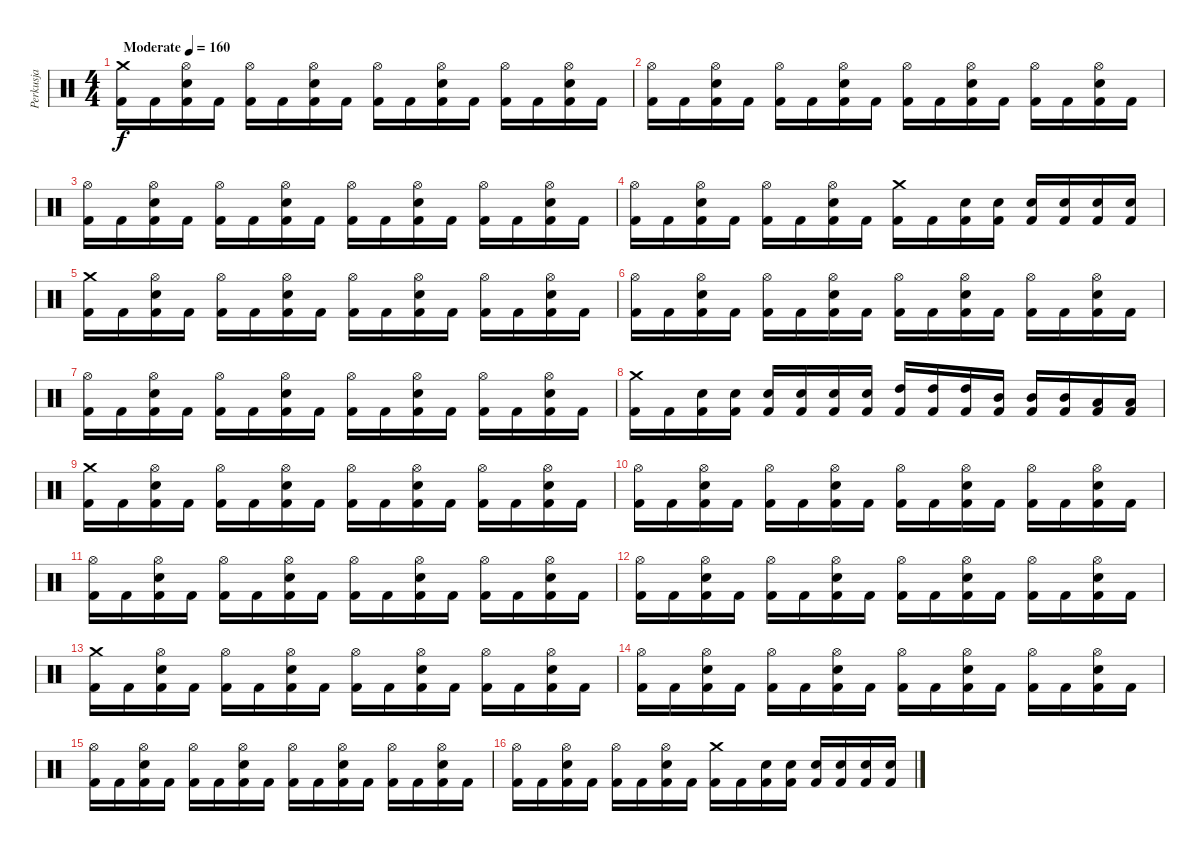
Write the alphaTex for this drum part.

\track ("Perkusja" "Perkusja") {instrument percussion}
\staff {score}
\articulation defaults
\ts (4 4)
\tempo (160 "Moderate")
\clef neutral
\ks c
("Crash medium (hit)" "Kick (hit) 2").16{dy f} "Kick (hit) 2".16 ("Hi-Hat (open)" "Snare (hit) 2" "Kick (hit) 2").16 "Kick (hit) 2".16 ("Hi-Hat (open)" "Kick (hit) 2").16 "Kick (hit) 2".16 ("Hi-Hat (open)" "Snare (hit) 2" "Kick (hit) 2").16 "Kick (hit) 2".16 ("Hi-Hat (open)" "Kick (hit) 2").16 "Kick (hit) 2".16 ("Hi-Hat (open)" "Snare (hit) 2" "Kick (hit) 2").16 "Kick (hit) 2".16 ("Hi-Hat (open)" "Kick (hit) 2").16 "Kick (hit) 2".16 ("Hi-Hat (open)" "Snare (hit) 2" "Kick (hit) 2").16 "Kick (hit) 2".16 |
("Hi-Hat (open)" "Kick (hit) 2").16 "Kick (hit) 2".16 ("Hi-Hat (open)" "Snare (hit) 2" "Kick (hit) 2").16 "Kick (hit) 2".16 ("Hi-Hat (open)" "Kick (hit) 2").16 "Kick (hit) 2".16 ("Hi-Hat (open)" "Snare (hit) 2" "Kick (hit) 2").16 "Kick (hit) 2".16 ("Hi-Hat (open)" "Kick (hit) 2").16 "Kick (hit) 2".16 ("Hi-Hat (open)" "Snare (hit) 2" "Kick (hit) 2").16 "Kick (hit) 2".16 ("Hi-Hat (open)" "Kick (hit) 2").16 "Kick (hit) 2".16 ("Hi-Hat (open)" "Snare (hit) 2" "Kick (hit) 2").16 "Kick (hit) 2".16 |
("Hi-Hat (open)" "Kick (hit) 2").16 "Kick (hit) 2".16 ("Hi-Hat (open)" "Snare (hit) 2" "Kick (hit) 2").16 "Kick (hit) 2".16 ("Hi-Hat (open)" "Kick (hit) 2").16 "Kick (hit) 2".16 ("Hi-Hat (open)" "Snare (hit) 2" "Kick (hit) 2").16 "Kick (hit) 2".16 ("Hi-Hat (open)" "Kick (hit) 2").16 "Kick (hit) 2".16 ("Hi-Hat (open)" "Snare (hit) 2" "Kick (hit) 2").16 "Kick (hit) 2".16 ("Hi-Hat (open)" "Kick (hit) 2").16 "Kick (hit) 2".16 ("Hi-Hat (open)" "Snare (hit) 2" "Kick (hit) 2").16 "Kick (hit) 2".16 |
("Hi-Hat (open)" "Kick (hit) 2").16 "Kick (hit) 2".16 ("Hi-Hat (open)" "Snare (hit) 2" "Kick (hit) 2").16 "Kick (hit) 2".16 ("Hi-Hat (open)" "Kick (hit) 2").16 "Kick (hit) 2".16 ("Hi-Hat (open)" "Snare (hit) 2" "Kick (hit) 2").16 "Kick (hit) 2".16 ("Crash medium (hit)" "Kick (hit) 2").16 "Kick (hit) 2".16 ("Snare (hit) 2" "Kick (hit) 2").16 ("Snare (hit) 2" "Kick (hit) 2").16 ("Snare (hit) 2" "Kick (hit) 2").16 ("Snare (hit) 2" "Kick (hit) 2").16 ("Snare (hit) 2" "Kick (hit) 2").16 ("Snare (hit) 2" "Kick (hit) 2").16 |
("Crash medium (hit)" "Kick (hit) 2").16 "Kick (hit) 2".16 ("Hi-Hat (open)" "Snare (hit) 2" "Kick (hit) 2").16 "Kick (hit) 2".16 ("Hi-Hat (open)" "Kick (hit) 2").16 "Kick (hit) 2".16 ("Hi-Hat (open)" "Snare (hit) 2" "Kick (hit) 2").16 "Kick (hit) 2".16 ("Hi-Hat (open)" "Kick (hit) 2").16 "Kick (hit) 2".16 ("Hi-Hat (open)" "Snare (hit) 2" "Kick (hit) 2").16 "Kick (hit) 2".16 ("Hi-Hat (open)" "Kick (hit) 2").16 "Kick (hit) 2".16 ("Hi-Hat (open)" "Snare (hit) 2" "Kick (hit) 2").16 "Kick (hit) 2".16 |
("Hi-Hat (open)" "Kick (hit) 2").16 "Kick (hit) 2".16 ("Hi-Hat (open)" "Snare (hit) 2" "Kick (hit) 2").16 "Kick (hit) 2".16 ("Hi-Hat (open)" "Kick (hit) 2").16 "Kick (hit) 2".16 ("Hi-Hat (open)" "Snare (hit) 2" "Kick (hit) 2").16 "Kick (hit) 2".16 ("Hi-Hat (open)" "Kick (hit) 2").16 "Kick (hit) 2".16 ("Hi-Hat (open)" "Snare (hit) 2" "Kick (hit) 2").16 "Kick (hit) 2".16 ("Hi-Hat (open)" "Kick (hit) 2").16 "Kick (hit) 2".16 ("Hi-Hat (open)" "Snare (hit) 2" "Kick (hit) 2").16 "Kick (hit) 2".16 |
("Hi-Hat (open)" "Kick (hit) 2").16 "Kick (hit) 2".16 ("Hi-Hat (open)" "Snare (hit) 2" "Kick (hit) 2").16 "Kick (hit) 2".16 ("Hi-Hat (open)" "Kick (hit) 2").16 "Kick (hit) 2".16 ("Hi-Hat (open)" "Snare (hit) 2" "Kick (hit) 2").16 "Kick (hit) 2".16 ("Hi-Hat (open)" "Kick (hit) 2").16 "Kick (hit) 2".16 ("Hi-Hat (open)" "Snare (hit) 2" "Kick (hit) 2").16 "Kick (hit) 2".16 ("Hi-Hat (open)" "Kick (hit) 2").16 "Kick (hit) 2".16 ("Hi-Hat (open)" "Snare (hit) 2" "Kick (hit) 2").16 "Kick (hit) 2".16 |
("Crash medium (hit)" "Kick (hit) 2").16 "Kick (hit) 2".16 ("Snare (hit) 2" "Kick (hit) 2").16 ("Snare (hit) 2" "Kick (hit) 2").16 ("Snare (hit) 2" "Kick (hit) 2").16 ("Snare (hit) 2" "Kick (hit) 2").16 ("Snare (hit) 2" "Kick (hit) 2").16 ("Snare (hit) 2" "Kick (hit) 2").16 ("High Tom (hit)" "Kick (hit) 2").16 ("High Tom (hit)" "Kick (hit) 2").16 ("High Tom (hit)" "Kick (hit) 2").16 ("Mid Tom (hit)" "Kick (hit) 2").16 ("Mid Tom (hit)" "Kick (hit) 2").16 ("Mid Tom (hit)" "Kick (hit) 2").16 ("Low Tom (hit)" "Kick (hit) 2").16 ("Low Tom (hit)" "Kick (hit) 2").16 |
("Crash medium (hit)" "Kick (hit) 2").16 "Kick (hit) 2".16 ("Hi-Hat (open)" "Snare (hit) 2" "Kick (hit) 2").16 "Kick (hit) 2".16 ("Hi-Hat (open)" "Kick (hit) 2").16 "Kick (hit) 2".16 ("Hi-Hat (open)" "Snare (hit) 2" "Kick (hit) 2").16 "Kick (hit) 2".16 ("Hi-Hat (open)" "Kick (hit) 2").16 "Kick (hit) 2".16 ("Hi-Hat (open)" "Snare (hit) 2" "Kick (hit) 2").16 "Kick (hit) 2".16 ("Hi-Hat (open)" "Kick (hit) 2").16 "Kick (hit) 2".16 ("Hi-Hat (open)" "Snare (hit) 2" "Kick (hit) 2").16 "Kick (hit) 2".16 |
("Hi-Hat (open)" "Kick (hit) 2").16 "Kick (hit) 2".16 ("Hi-Hat (open)" "Snare (hit) 2" "Kick (hit) 2").16 "Kick (hit) 2".16 ("Hi-Hat (open)" "Kick (hit) 2").16 "Kick (hit) 2".16 ("Hi-Hat (open)" "Snare (hit) 2" "Kick (hit) 2").16 "Kick (hit) 2".16 ("Hi-Hat (open)" "Kick (hit) 2").16 "Kick (hit) 2".16 ("Hi-Hat (open)" "Snare (hit) 2" "Kick (hit) 2").16 "Kick (hit) 2".16 ("Hi-Hat (open)" "Kick (hit) 2").16 "Kick (hit) 2".16 ("Hi-Hat (open)" "Snare (hit) 2" "Kick (hit) 2").16 "Kick (hit) 2".16 |
("Hi-Hat (open)" "Kick (hit) 2").16 "Kick (hit) 2".16 ("Hi-Hat (open)" "Snare (hit) 2" "Kick (hit) 2").16 "Kick (hit) 2".16 ("Hi-Hat (open)" "Kick (hit) 2").16 "Kick (hit) 2".16 ("Hi-Hat (open)" "Snare (hit) 2" "Kick (hit) 2").16 "Kick (hit) 2".16 ("Hi-Hat (open)" "Kick (hit) 2").16 "Kick (hit) 2".16 ("Hi-Hat (open)" "Snare (hit) 2" "Kick (hit) 2").16 "Kick (hit) 2".16 ("Hi-Hat (open)" "Kick (hit) 2").16 "Kick (hit) 2".16 ("Hi-Hat (open)" "Snare (hit) 2" "Kick (hit) 2").16 "Kick (hit) 2".16 |
("Hi-Hat (open)" "Kick (hit) 2").16 "Kick (hit) 2".16 ("Hi-Hat (open)" "Snare (hit) 2" "Kick (hit) 2").16 "Kick (hit) 2".16 ("Hi-Hat (open)" "Kick (hit) 2").16 "Kick (hit) 2".16 ("Hi-Hat (open)" "Snare (hit) 2" "Kick (hit) 2").16 "Kick (hit) 2".16 ("Hi-Hat (open)" "Kick (hit) 2").16 "Kick (hit) 2".16 ("Hi-Hat (open)" "Snare (hit) 2" "Kick (hit) 2").16 "Kick (hit) 2".16 ("Hi-Hat (open)" "Kick (hit) 2").16 "Kick (hit) 2".16 ("Hi-Hat (open)" "Snare (hit) 2" "Kick (hit) 2").16 "Kick (hit) 2".16 |
("Crash medium (hit)" "Kick (hit) 2").16 "Kick (hit) 2".16 ("Hi-Hat (open)" "Snare (hit) 2" "Kick (hit) 2").16 "Kick (hit) 2".16 ("Hi-Hat (open)" "Kick (hit) 2").16 "Kick (hit) 2".16 ("Hi-Hat (open)" "Snare (hit) 2" "Kick (hit) 2").16 "Kick (hit) 2".16 ("Hi-Hat (open)" "Kick (hit) 2").16 "Kick (hit) 2".16 ("Hi-Hat (open)" "Snare (hit) 2" "Kick (hit) 2").16 "Kick (hit) 2".16 ("Hi-Hat (open)" "Kick (hit) 2").16 "Kick (hit) 2".16 ("Hi-Hat (open)" "Snare (hit) 2" "Kick (hit) 2").16 "Kick (hit) 2".16 |
("Hi-Hat (open)" "Kick (hit) 2").16 "Kick (hit) 2".16 ("Hi-Hat (open)" "Snare (hit) 2" "Kick (hit) 2").16 "Kick (hit) 2".16 ("Hi-Hat (open)" "Kick (hit) 2").16 "Kick (hit) 2".16 ("Hi-Hat (open)" "Snare (hit) 2" "Kick (hit) 2").16 "Kick (hit) 2".16 ("Hi-Hat (open)" "Kick (hit) 2").16 "Kick (hit) 2".16 ("Hi-Hat (open)" "Snare (hit) 2" "Kick (hit) 2").16 "Kick (hit) 2".16 ("Hi-Hat (open)" "Kick (hit) 2").16 "Kick (hit) 2".16 ("Hi-Hat (open)" "Snare (hit) 2" "Kick (hit) 2").16 "Kick (hit) 2".16 |
("Hi-Hat (open)" "Kick (hit) 2").16 "Kick (hit) 2".16 ("Hi-Hat (open)" "Snare (hit) 2" "Kick (hit) 2").16 "Kick (hit) 2".16 ("Hi-Hat (open)" "Kick (hit) 2").16 "Kick (hit) 2".16 ("Hi-Hat (open)" "Snare (hit) 2" "Kick (hit) 2").16 "Kick (hit) 2".16 ("Hi-Hat (open)" "Kick (hit) 2").16 "Kick (hit) 2".16 ("Hi-Hat (open)" "Snare (hit) 2" "Kick (hit) 2").16 "Kick (hit) 2".16 ("Hi-Hat (open)" "Kick (hit) 2").16 "Kick (hit) 2".16 ("Hi-Hat (open)" "Snare (hit) 2" "Kick (hit) 2").16 "Kick (hit) 2".16 |
("Hi-Hat (open)" "Kick (hit) 2").16 "Kick (hit) 2".16 ("Hi-Hat (open)" "Snare (hit) 2" "Kick (hit) 2").16 "Kick (hit) 2".16 ("Hi-Hat (open)" "Kick (hit) 2").16 "Kick (hit) 2".16 ("Hi-Hat (open)" "Snare (hit) 2" "Kick (hit) 2").16 "Kick (hit) 2".16 ("Crash medium (hit)" "Kick (hit) 2").16 "Kick (hit) 2".16 ("Snare (hit) 2" "Kick (hit) 2").16 ("Snare (hit) 2" "Kick (hit) 2").16 ("Snare (hit) 2" "Kick (hit) 2").16 ("Snare (hit) 2" "Kick (hit) 2").16 ("Snare (hit) 2" "Kick (hit) 2").16 ("Snare (hit) 2" "Kick (hit) 2").16
